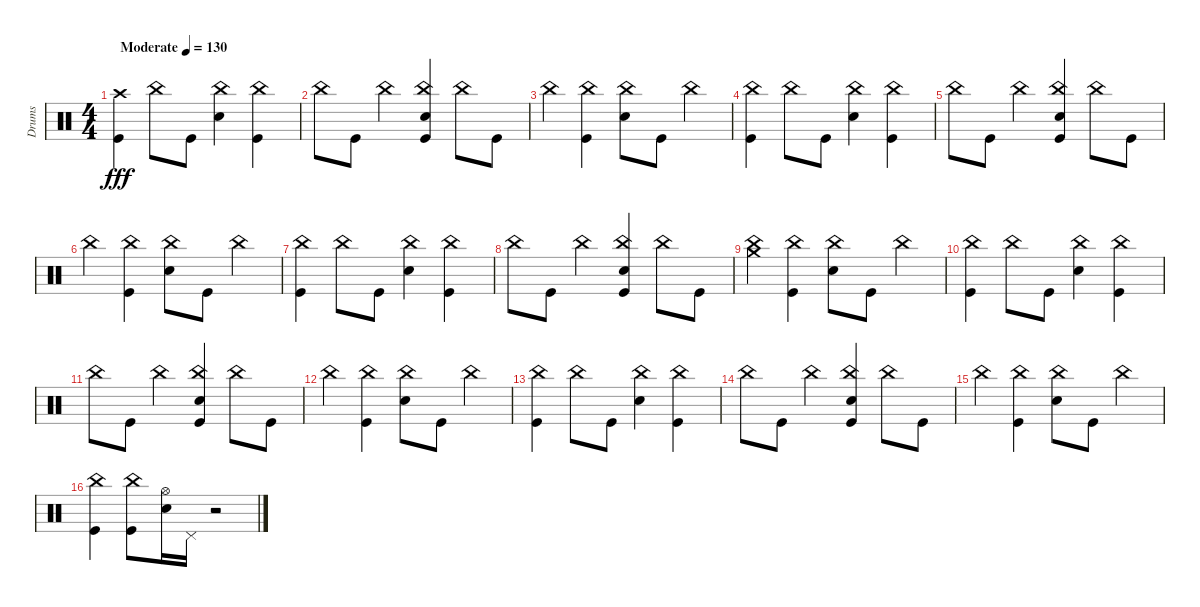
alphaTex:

\track ("Drums" "Drums") {instrument percussion}
\staff {score}
\articulation defaults
\ts (4 4)
\tempo (130 "Moderate")
\clef neutral
\ks c
("Crash high (hit)" "Kick (hit)").4{dy fff} "China (hit)".8 "Kick (hit)".8 ("China (hit)" "Snare (hit) 2").4 ("China (hit)" "Kick (hit)").4 |
"China (hit)".8 "Kick (hit)".8 "China (hit)".4 ("China (hit)" "Snare (hit) 2" "Kick (hit)").4 "China (hit)".8 "Kick (hit)".8 |
"China (hit)".4 ("China (hit)" "Kick (hit)").4 ("China (hit)" "Snare (hit) 2").8 "Kick (hit)".8 "China (hit)".4 |
("China (hit)" "Kick (hit)").4 "China (hit)".8 "Kick (hit)".8 ("China (hit)" "Snare (hit) 2").4 ("China (hit)" "Kick (hit)").4 |
"China (hit)".8 "Kick (hit)".8 "China (hit)".4 ("China (hit)" "Snare (hit) 2" "Kick (hit)").4 "China (hit)".8 "Kick (hit)".8 |
"China (hit)".4 ("China (hit)" "Kick (hit)").4 ("China (hit)" "Snare (hit) 2").8 "Kick (hit)".8 "China (hit)".4 |
("China (hit)" "Kick (hit)").4 "China (hit)".8 "Kick (hit)".8 ("China (hit)" "Snare (hit) 2").4 ("China (hit)" "Kick (hit)").4 |
"China (hit)".8 "Kick (hit)".8 "China (hit)".4 ("China (hit)" "Snare (hit) 2" "Kick (hit)").4 "China (hit)".8 "Kick (hit)".8 |
("Crash medium (hit)" "China (hit)").4 ("China (hit)" "Kick (hit)").4 ("China (hit)" "Snare (hit) 2").8 "Kick (hit)".8 "China (hit)".4 |
("China (hit)" "Kick (hit)").4 "China (hit)".8 "Kick (hit)".8 ("China (hit)" "Snare (hit) 2").4 ("China (hit)" "Kick (hit)").4 |
"China (hit)".8 "Kick (hit)".8 "China (hit)".4 ("China (hit)" "Snare (hit) 2" "Kick (hit)").4 "China (hit)".8 "Kick (hit)".8 |
"China (hit)".4 ("China (hit)" "Kick (hit)").4 ("China (hit)" "Snare (hit) 2").8 "Kick (hit)".8 "China (hit)".4 |
("China (hit)" "Kick (hit)").4 "China (hit)".8 "Kick (hit)".8 ("China (hit)" "Snare (hit) 2").4 ("China (hit)" "Kick (hit)").4 |
"China (hit)".8 "Kick (hit)".8 "China (hit)".4 ("China (hit)" "Snare (hit) 2" "Kick (hit)").4 "China (hit)".8 "Kick (hit)".8 |
"China (hit)".4 ("China (hit)" "Kick (hit)").4 ("China (hit)" "Snare (hit) 2").8 "Kick (hit)".8 "China (hit)".4 |
("China (hit)" "Kick (hit)").4 ("Kick (hit)" "China (hit)").8 ("Hi-Hat (open)" "Snare (hit) 2").16 "Pedal Hi-Hat (hit)".16 r.2
